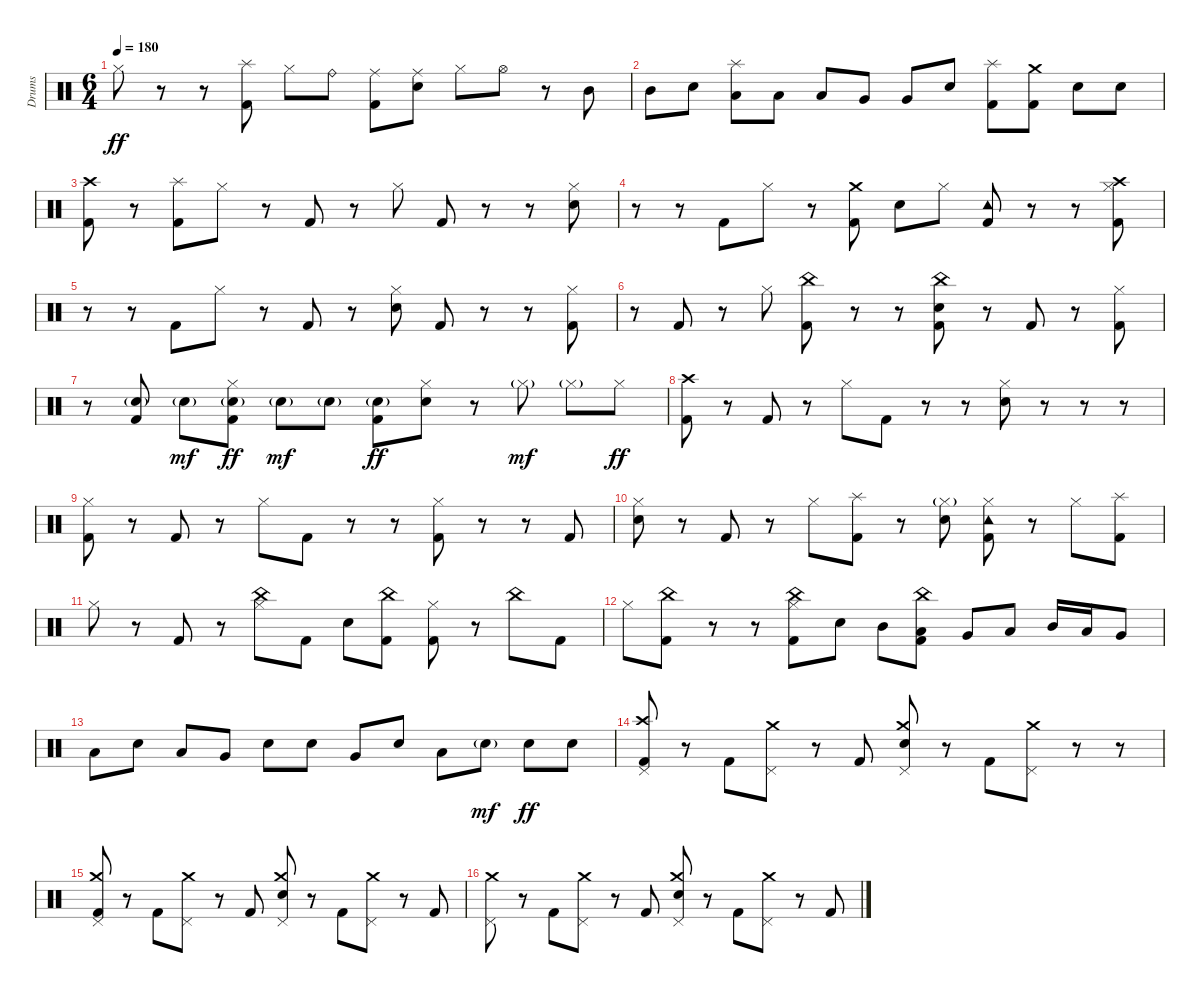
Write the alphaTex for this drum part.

\track ("Drums" "Drums") {instrument percussion}
\staff {score}
\articulation defaults
\ts (6 4)
\tempo 180
\clef neutral
\ks c "Hi-Hat (closed)".8{dy ff}
r.8 r.8 ("Splash (hit)" "Kick (hit) 2").8 "Hi-Hat (closed)".8 "Ride (bell)".8 ("Ride (middle)" "Kick (hit) 2").8 ("Ride (middle)" "Electric Snare (hit)").8 "Hi-Hat (closed)".8 "Hi-Hat (open)".8 r.8 "Mid Tom (hit)".8 |
"Mid Tom (hit)".8 "Electric Snare (hit)".8 ("Splash (hit)" "Low Tom (hit)").8 "Low Tom (hit)".8 "Low Tom (hit)".8 "Very Low Tom (hit)".8 "Very Low Tom (hit)".8 "Electric Snare (hit)".8 ("Splash (hit)" "Kick (hit) 2").8 ("Crash medium (hit)" "Kick (hit) 2").8 "Electric Snare (hit)".8 "Electric Snare (hit)".8 |
("Crash high (hit)" "Kick (hit) 2").8 r.8 ("Splash (hit)" "Kick (hit) 2").8 "Hi-Hat (closed)".8 r.8 "Kick (hit) 2".8 r.8 "Hi-Hat (closed)".8 "Kick (hit) 2".8 r.8 r.8 ("Hi-Hat (closed)" "Electric Snare (hit)").8 |
r.8 r.8 "Kick (hit) 2".8 "Hi-Hat (closed)".8 r.8 ("Crash medium (hit)" "Kick (hit) 2").8 "Electric Snare (hit)".8 "Hi-Hat (closed)".8 ("Tambourine (hit)" "Kick (hit) 2").8 r.8 r.8 ("Crash high (hit)" "Hi-Hat (closed)" "Kick (hit) 2").8 |
r.8 r.8 "Kick (hit) 2".8 "Hi-Hat (closed)".8 r.8 "Kick (hit) 2".8 r.8 ("Hi-Hat (closed)" "Electric Snare (hit)").8 "Kick (hit) 2".8 r.8 r.8 ("Hi-Hat (closed)" "Kick (hit) 2").8 |
r.8 "Kick (hit) 2".8 r.8 "Hi-Hat (closed)".8 ("China (hit)" "Kick (hit) 2").8 r.8 r.8 ("China (hit)" "Electric Snare (hit)" "Kick (hit) 2").8 r.8 "Kick (hit) 2".8 r.8 ("Hi-Hat (closed)" "Kick (hit) 2").8 |
r.8 ("Electric Snare (hit)"{g} "Kick (hit) 2").8 "Electric Snare (hit)"{g}.8{dy mf} ("Hi-Hat (closed)" "Electric Snare (hit)"{g} "Kick (hit) 2").8{dy ff} "Electric Snare (hit)"{g}.8{dy mf} "Electric Snare (hit)"{g}.8 ("Electric Snare (hit)"{g} "Kick (hit) 2").8{dy ff} ("Hi-Hat (closed)" "Electric Snare (hit)").8 r.8 "Hi-Hat (closed)"{g}.8{dy mf} "Hi-Hat (closed)"{g}.8 "Hi-Hat (closed)".8{dy ff} |
("Crash high (hit)" "Kick (hit) 2").8 r.8 "Kick (hit) 2".8 r.8 "Hi-Hat (closed)".8 "Kick (hit) 2".8 r.8 r.8 ("Hi-Hat (closed)" "Electric Snare (hit)").8 r.8 r.8 r.8 |
("Hi-Hat (closed)" "Kick (hit) 2").8 r.8 "Kick (hit) 2".8 r.8 "Hi-Hat (closed)".8 "Kick (hit) 2".8 r.8 r.8 ("Hi-Hat (closed)" "Kick (hit) 2").8 r.8 r.8 "Kick (hit) 2".8 |
("Hi-Hat (closed)" "Electric Snare (hit)").8 r.8 "Kick (hit) 2".8 r.8 "Hi-Hat (closed)".8 ("Splash (hit)" "Kick (hit) 2").8 r.8 ("Hi-Hat (closed)"{g} "Electric Snare (hit)").8 ("Tambourine (hit)" "Hi-Hat (closed)" "Kick (hit) 2").8 r.8 "Hi-Hat (closed)".8 ("Splash (hit)" "Kick (hit) 2").8 |
"Hi-Hat (closed)".8 r.8 "Kick (hit) 2".8 r.8 ("China (hit)" "Hi-Hat (closed)").8 "Kick (hit) 2".8 "Electric Snare (hit)".8 ("China (hit)" "Kick (hit) 2").8 ("Hi-Hat (closed)" "Kick (hit) 2").8 r.8 "China (hit)".8 "Kick (hit) 2".8 |
"Hi-Hat (closed)".8 ("China (hit)" "Kick (hit) 2").8 r.8 r.8 ("China (hit)" "Hi-Hat (closed)" "Kick (hit) 2").8 "Electric Snare (hit)".8 "Mid Tom (hit)".8 ("China (hit)" "Low Tom (hit)" "Kick (hit) 2").8 "Very Low Tom (hit)".8 "Low Floor Tom (hit)".8 "Mid Tom (hit)".16 "Low Tom (hit)".16 "Very Low Tom (hit)".8 |
"Low Floor Tom (hit)".8 "Electric Snare (hit)".8 "Low Tom (hit)".8 "Very Low Tom (hit)".8 "Electric Snare (hit)".8 "Electric Snare (hit)".8 "Very Low Tom (hit)".8 "Electric Snare (hit)".8 "Low Tom (hit)".8 "Electric Snare (hit)"{g}.8{dy mf} "Electric Snare (hit)".8{dy ff} "Electric Snare (hit)".8 |
\section ("" "")
("Crash high (hit)" "Pedal Hi-Hat (hit)" "Kick (hit) 2").8 r.8 "Kick (hit) 2".8 ("Crash medium (hit)" "Pedal Hi-Hat (hit)").8 r.8 "Kick (hit) 2".8 ("Crash medium (hit)" "Pedal Hi-Hat (hit)" "Electric Snare (hit)").8 r.8 "Kick (hit) 2".8 ("Crash medium (hit)" "Pedal Hi-Hat (hit)").8 r.8 r.8 |
("Crash medium (hit)" "Pedal Hi-Hat (hit)" "Kick (hit) 2").8 r.8 "Kick (hit) 2".8 ("Crash medium (hit)" "Pedal Hi-Hat (hit)").8 r.8 "Kick (hit) 2".8 ("Crash medium (hit)" "Pedal Hi-Hat (hit)" "Electric Snare (hit)").8 r.8 "Kick (hit) 2".8 ("Crash medium (hit)" "Pedal Hi-Hat (hit)").8 r.8 "Kick (hit) 2".8 |
("Crash medium (hit)" "Pedal Hi-Hat (hit)").8 r.8 "Kick (hit) 2".8 ("Crash medium (hit)" "Pedal Hi-Hat (hit)").8 r.8 "Kick (hit) 2".8 ("Crash medium (hit)" "Pedal Hi-Hat (hit)" "Electric Snare (hit)").8 r.8 "Kick (hit) 2".8 ("Crash medium (hit)" "Pedal Hi-Hat (hit)").8 r.8 "Kick (hit) 2".8
